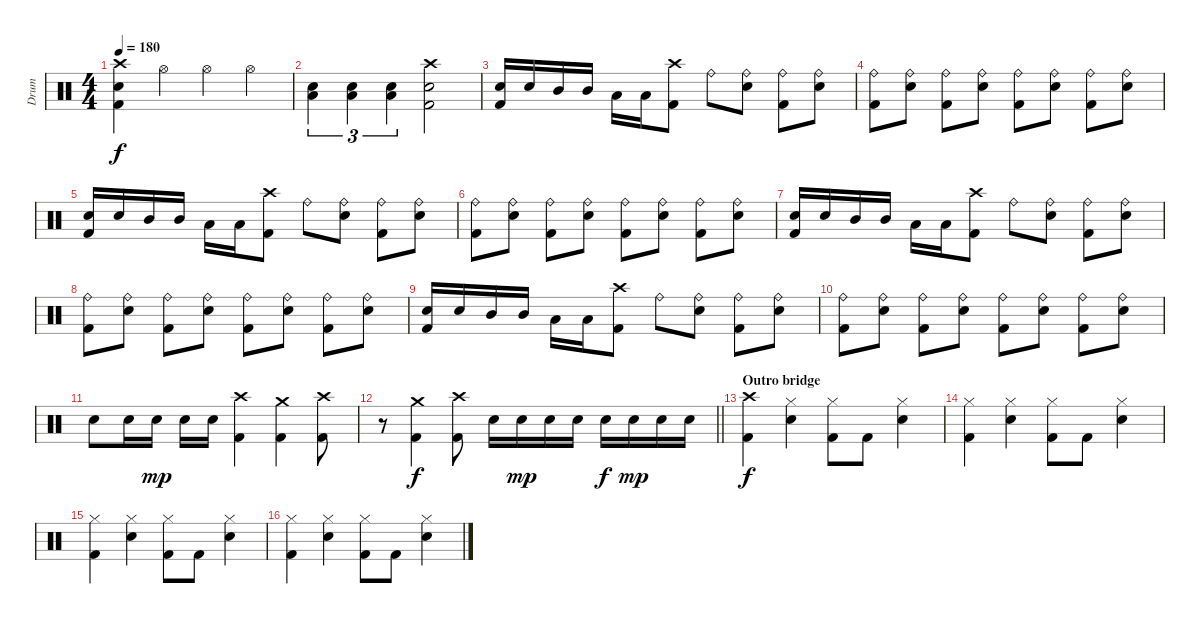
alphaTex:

\track ("Drum" "Drum") {instrument percussion}
\staff {score}
\articulation defaults
\ts (4 4)
\tempo 180
\clef neutral
\ks c
("Crash high (hit)" "Snare (hit) 2" "Kick (hit) 2").4{dy f} "Hi-Hat (open)".4 "Hi-Hat (open)".4 "Hi-Hat (open)".4 |
("Low Tom (hit)" "Snare (hit) 2").4{tu (3 2)} ("Low Tom (hit)" "Snare (hit) 2").4{tu (3 2)} ("Low Tom (hit)" "Snare (hit) 2").4{tu (3 2)} ("Crash high (hit)" "Snare (hit) 2" "Kick (hit) 2").2 |
("Snare (hit) 2" "Kick (hit) 2").16 "Snare (hit) 2".16 "Mid Tom (hit)".16 "Mid Tom (hit)".16 "Low Tom (hit)".16 "Low Tom (hit)".16 ("Crash high (hit)" "Kick (hit) 2").8 "Ride (bell)".8 ("Ride (bell)" "Snare (hit) 2").8 ("Ride (bell)" "Kick (hit) 2").8 ("Ride (bell)" "Snare (hit) 2").8 |
("Ride (bell)" "Kick (hit) 2").8 ("Ride (bell)" "Snare (hit) 2").8 ("Ride (bell)" "Kick (hit) 2").8 ("Ride (bell)" "Snare (hit) 2").8 ("Ride (bell)" "Kick (hit) 2").8 ("Ride (bell)" "Snare (hit) 2").8 ("Ride (bell)" "Kick (hit) 2").8 ("Ride (bell)" "Snare (hit) 2").8 |
("Snare (hit) 2" "Kick (hit) 2").16 "Snare (hit) 2".16 "Mid Tom (hit)".16 "Mid Tom (hit)".16 "Low Tom (hit)".16 "Low Tom (hit)".16 ("Crash high (hit)" "Kick (hit) 2").8 "Ride (bell)".8 ("Ride (bell)" "Snare (hit) 2").8 ("Ride (bell)" "Kick (hit) 2").8 ("Ride (bell)" "Snare (hit) 2").8 |
("Ride (bell)" "Kick (hit) 2").8 ("Ride (bell)" "Snare (hit) 2").8 ("Ride (bell)" "Kick (hit) 2").8 ("Ride (bell)" "Snare (hit) 2").8 ("Ride (bell)" "Kick (hit) 2").8 ("Ride (bell)" "Snare (hit) 2").8 ("Ride (bell)" "Kick (hit) 2").8 ("Ride (bell)" "Snare (hit) 2").8 |
("Snare (hit) 2" "Kick (hit) 2").16 "Snare (hit) 2".16 "Mid Tom (hit)".16 "Mid Tom (hit)".16 "Low Tom (hit)".16 "Low Tom (hit)".16 ("Crash high (hit)" "Kick (hit) 2").8 "Ride (bell)".8 ("Ride (bell)" "Snare (hit) 2").8 ("Ride (bell)" "Kick (hit) 2").8 ("Ride (bell)" "Snare (hit) 2").8 |
("Ride (bell)" "Kick (hit) 2").8 ("Ride (bell)" "Snare (hit) 2").8 ("Ride (bell)" "Kick (hit) 2").8 ("Ride (bell)" "Snare (hit) 2").8 ("Ride (bell)" "Kick (hit) 2").8 ("Ride (bell)" "Snare (hit) 2").8 ("Ride (bell)" "Kick (hit) 2").8 ("Ride (bell)" "Snare (hit) 2").8 |
("Snare (hit) 2" "Kick (hit) 2").16 "Snare (hit) 2".16 "Mid Tom (hit)".16 "Mid Tom (hit)".16 "Low Tom (hit)".16 "Low Tom (hit)".16 ("Crash high (hit)" "Kick (hit) 2").8 "Ride (bell)".8 ("Ride (bell)" "Snare (hit) 2").8 ("Ride (bell)" "Kick (hit) 2").8 ("Ride (bell)" "Snare (hit) 2").8 |
("Ride (bell)" "Kick (hit) 2").8 ("Ride (bell)" "Snare (hit) 2").8 ("Ride (bell)" "Kick (hit) 2").8 ("Ride (bell)" "Snare (hit) 2").8 ("Ride (bell)" "Kick (hit) 2").8 ("Ride (bell)" "Snare (hit) 2").8 ("Ride (bell)" "Kick (hit) 2").8 ("Ride (bell)" "Snare (hit) 2").8 |
"Snare (hit) 2".8 "Snare (hit) 2".16 "Snare (hit) 2".16{dy mp} "Snare (hit) 2".16 "Snare (hit) 2".16 ("Crash high (hit)" "Kick (hit) 2").4 ("Crash medium (hit)" "Kick (hit) 2").4 ("Crash high (hit)" "Kick (hit) 2").8 |
\barLineRight lightlight
r.8 ("Crash medium (hit)" "Kick (hit) 2").4{dy f} ("Crash high (hit)" "Kick (hit) 2").8 "Snare (hit) 2".16 "Snare (hit) 2".16{dy mp} "Snare (hit) 2".16 "Snare (hit) 2".16 "Snare (hit) 2".16{dy f} "Snare (hit) 2".16{dy mp} "Snare (hit) 2".16 "Snare (hit) 2".16 |
\section ("" "Outro bridge")
("Crash high (hit)" "Kick (hit) 2").4{dy f} ("Hi-Hat (closed)" "Snare (hit) 2").4 ("Hi-Hat (closed)" "Kick (hit) 2").8 "Kick (hit) 2".8 ("Hi-Hat (closed)" "Snare (hit) 2").4 |
("Hi-Hat (closed)" "Kick (hit) 2").4 ("Hi-Hat (closed)" "Snare (hit) 2").4 ("Hi-Hat (closed)" "Kick (hit) 2").8 "Kick (hit) 2".8 ("Hi-Hat (closed)" "Snare (hit) 2").4 |
("Hi-Hat (closed)" "Kick (hit) 2").4 ("Hi-Hat (closed)" "Snare (hit) 2").4 ("Hi-Hat (closed)" "Kick (hit) 2").8 "Kick (hit) 2".8 ("Hi-Hat (closed)" "Snare (hit) 2").4 |
("Hi-Hat (closed)" "Kick (hit) 2").4 ("Hi-Hat (closed)" "Snare (hit) 2").4 ("Hi-Hat (closed)" "Kick (hit) 2").8 "Kick (hit) 2".8 ("Hi-Hat (closed)" "Snare (hit) 2").4
